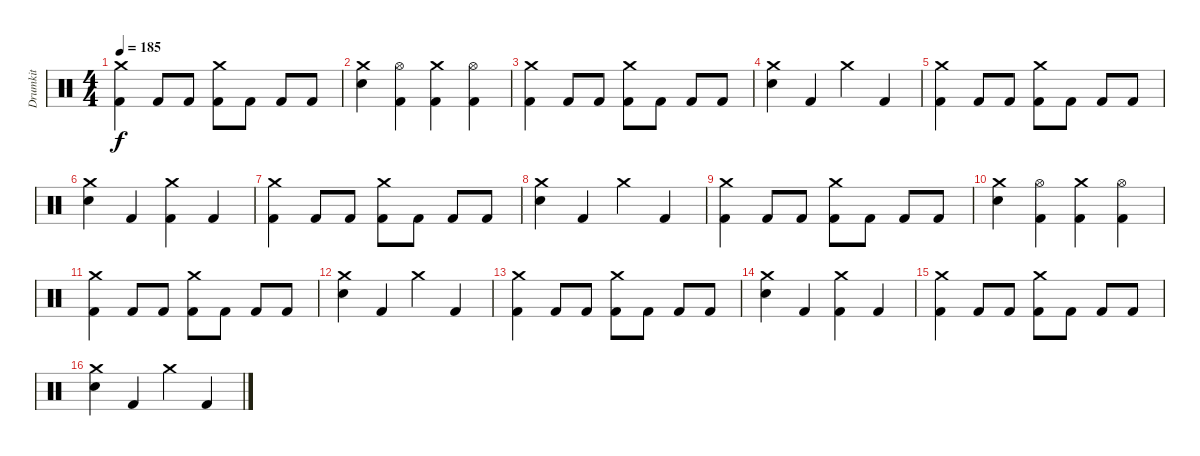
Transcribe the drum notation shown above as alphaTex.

\track ("Drumkit" "Drumkit") {instrument percussion}
\staff {score}
\articulation defaults
\ts (4 4)
\tempo 185
\clef neutral
\ks c
("Crash medium (hit)" "Kick (hit) 2").4{dy f} "Kick (hit) 2".8 "Kick (hit) 2".8 ("Crash medium (hit)" "Kick (hit) 2").8 "Kick (hit) 2".8 "Kick (hit) 2".8 "Kick (hit) 2".8 |
("Crash medium (hit)" "Snare (hit) 2").4 ("Hi-Hat (open)" "Kick (hit) 2").4 ("Crash medium (hit)" "Kick (hit) 2").4 ("Hi-Hat (open)" "Kick (hit) 2").4 |
("Crash medium (hit)" "Kick (hit) 2").4 "Kick (hit) 2".8 "Kick (hit) 2".8 ("Crash medium (hit)" "Kick (hit) 2").8 "Kick (hit) 2".8 "Kick (hit) 2".8 "Kick (hit) 2".8 |
("Crash medium (hit)" "Snare (hit) 2").4 "Kick (hit) 2".4 "Crash medium (hit)".4 "Kick (hit) 2".4 |
("Crash medium (hit)" "Kick (hit) 2").4 "Kick (hit) 2".8 "Kick (hit) 2".8 ("Crash medium (hit)" "Kick (hit) 2").8 "Kick (hit) 2".8 "Kick (hit) 2".8 "Kick (hit) 2".8 |
("Crash medium (hit)" "Snare (hit) 2").4 "Kick (hit) 2".4 ("Crash medium (hit)" "Kick (hit) 2").4 "Kick (hit) 2".4 |
("Crash medium (hit)" "Kick (hit) 2").4 "Kick (hit) 2".8 "Kick (hit) 2".8 ("Crash medium (hit)" "Kick (hit) 2").8 "Kick (hit) 2".8 "Kick (hit) 2".8 "Kick (hit) 2".8 |
("Crash medium (hit)" "Snare (hit) 2").4 "Kick (hit) 2".4 "Crash medium (hit)".4 "Kick (hit) 2".4 |
("Crash medium (hit)" "Kick (hit) 2").4 "Kick (hit) 2".8 "Kick (hit) 2".8 ("Crash medium (hit)" "Kick (hit) 2").8 "Kick (hit) 2".8 "Kick (hit) 2".8 "Kick (hit) 2".8 |
("Crash medium (hit)" "Snare (hit) 2").4 ("Hi-Hat (open)" "Kick (hit) 2").4 ("Crash medium (hit)" "Kick (hit) 2").4 ("Hi-Hat (open)" "Kick (hit) 2").4 |
("Crash medium (hit)" "Kick (hit) 2").4 "Kick (hit) 2".8 "Kick (hit) 2".8 ("Crash medium (hit)" "Kick (hit) 2").8 "Kick (hit) 2".8 "Kick (hit) 2".8 "Kick (hit) 2".8 |
("Crash medium (hit)" "Snare (hit) 2").4 "Kick (hit) 2".4 "Crash medium (hit)".4 "Kick (hit) 2".4 |
("Crash medium (hit)" "Kick (hit) 2").4 "Kick (hit) 2".8 "Kick (hit) 2".8 ("Crash medium (hit)" "Kick (hit) 2").8 "Kick (hit) 2".8 "Kick (hit) 2".8 "Kick (hit) 2".8 |
("Crash medium (hit)" "Snare (hit) 2").4 "Kick (hit) 2".4 ("Crash medium (hit)" "Kick (hit) 2").4 "Kick (hit) 2".4 |
("Crash medium (hit)" "Kick (hit) 2").4 "Kick (hit) 2".8 "Kick (hit) 2".8 ("Crash medium (hit)" "Kick (hit) 2").8 "Kick (hit) 2".8 "Kick (hit) 2".8 "Kick (hit) 2".8 |
("Crash medium (hit)" "Snare (hit) 2").4 "Kick (hit) 2".4 "Crash medium (hit)".4 "Kick (hit) 2".4
